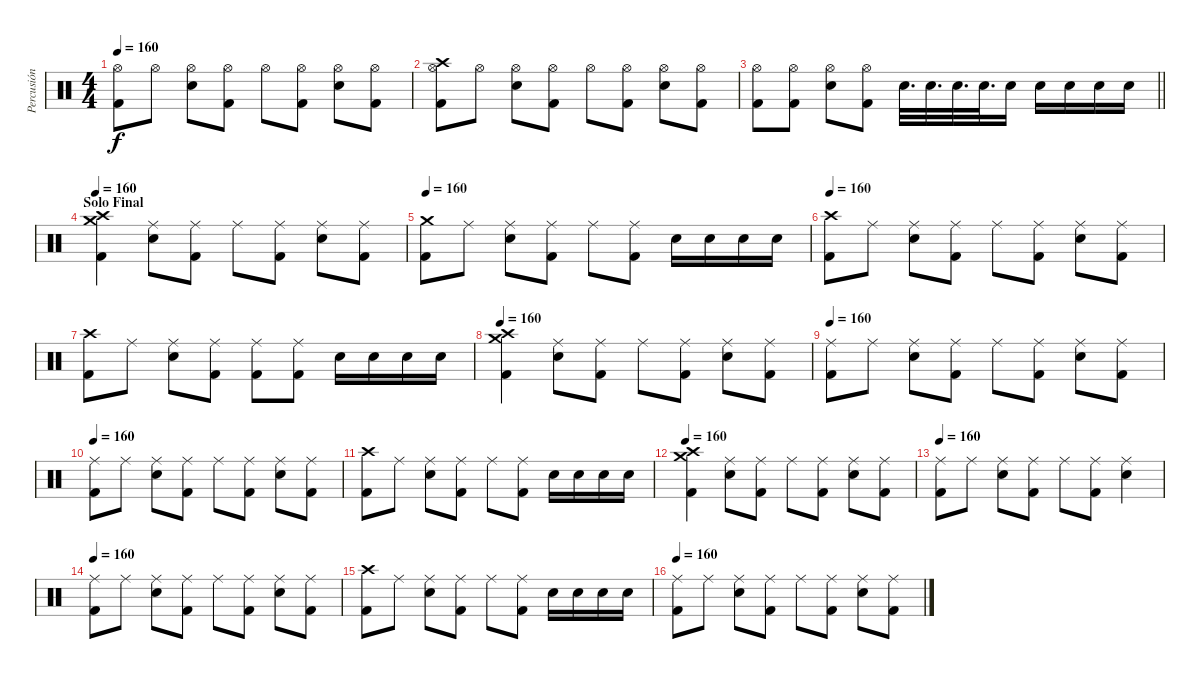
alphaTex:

\track ("Percusión" "Percusión") {instrument percussion}
\staff {score}
\articulation defaults
\ts (4 4)
\tempo 160
\clef neutral
\ks c
("Hi-Hat (open)" "Kick (hit) 2").8{dy f} "Hi-Hat (open)".8 ("Hi-Hat (open)" "Snare (hit) 2").8 ("Hi-Hat (open)" "Kick (hit) 2").8 "Hi-Hat (open)".8 ("Hi-Hat (open)" "Kick (hit) 2").8 ("Hi-Hat (open)" "Snare (hit) 2").8 ("Hi-Hat (open)" "Kick (hit) 2").8 |
("Crash high (hit)" "Hi-Hat (open)" "Kick (hit) 2").8 "Hi-Hat (open)".8 ("Hi-Hat (open)" "Snare (hit) 2").8 ("Hi-Hat (open)" "Kick (hit) 2").8 "Hi-Hat (open)".8 ("Hi-Hat (open)" "Kick (hit) 2").8 ("Hi-Hat (open)" "Snare (hit) 2").8 ("Hi-Hat (open)" "Kick (hit) 2").8 |
\barLineRight lightlight
("Hi-Hat (open)" "Kick (hit) 2").8 ("Hi-Hat (open)" "Kick (hit) 2").8 ("Hi-Hat (open)" "Snare (hit) 2").8 ("Hi-Hat (open)" "Kick (hit) 2").8 "Snare (hit) 2".32{d} "Snare (hit) 2".32{d} "Snare (hit) 2".32{d} "Snare (hit) 2".32{d} "Snare (hit) 2".16 "Snare (hit) 2".16 "Snare (hit) 2".16 "Snare (hit) 2".16 "Snare (hit) 2".16 |
\section ("" "Solo Final")
\tempo 160
("Crash high (hit)" "Crash medium (hit)" "Kick (hit) 2").4 ("Ride (middle)" "Snare (hit) 2").8 ("Ride (middle)" "Kick (hit) 2").8 "Ride (middle)".8 ("Ride (middle)" "Kick (hit) 2").8 ("Ride (middle)" "Snare (hit) 2").8 ("Ride (middle)" "Kick (hit) 2").8 |
\tempo 160
("Crash medium (hit)" "Kick (hit) 2").8 "Ride (middle)".8 ("Ride (middle)" "Snare (hit) 2").8 ("Ride (middle)" "Kick (hit) 2").8 "Ride (middle)".8 ("Ride (middle)" "Kick (hit) 2").8 "Snare (hit) 2".16 "Snare (hit) 2".16 "Snare (hit) 2".16 "Snare (hit) 2".16 |
\tempo 160
("Crash high (hit)" "Kick (hit) 2").8 "Ride (middle)".8 ("Ride (middle)" "Snare (hit) 2").8 ("Ride (middle)" "Kick (hit) 2").8 "Ride (middle)".8 ("Ride (middle)" "Kick (hit) 2").8 ("Ride (middle)" "Snare (hit) 2").8 ("Ride (middle)" "Kick (hit) 2").8 |
("Crash high (hit)" "Kick (hit) 2").8 "Ride (middle)".8 ("Ride (middle)" "Snare (hit) 2").8 ("Ride (middle)" "Kick (hit) 2").8 ("Ride (middle)" "Kick (hit) 2").8 ("Ride (middle)" "Kick (hit) 2").8 "Snare (hit) 2".16 "Snare (hit) 2".16 "Snare (hit) 2".16 "Snare (hit) 2".16 |
\tempo 160
("Crash high (hit)" "Crash medium (hit)" "Kick (hit) 2").4 ("Ride (middle)" "Snare (hit) 2").8 ("Ride (middle)" "Kick (hit) 2").8 "Ride (middle)".8 ("Ride (middle)" "Kick (hit) 2").8 ("Ride (middle)" "Snare (hit) 2").8 ("Ride (middle)" "Kick (hit) 2").8 |
\tempo 160
("Ride (middle)" "Kick (hit) 2").8 "Ride (middle)".8 ("Ride (middle)" "Snare (hit) 2").8 ("Ride (middle)" "Kick (hit) 2").8 "Ride (middle)".8 ("Ride (middle)" "Kick (hit) 2").8 ("Ride (middle)" "Snare (hit) 2").8 ("Ride (middle)" "Kick (hit) 2").8 |
\tempo 160
("Ride (middle)" "Kick (hit) 2").8 "Ride (middle)".8 ("Ride (middle)" "Snare (hit) 2").8 ("Ride (middle)" "Kick (hit) 2").8 "Ride (middle)".8 ("Ride (middle)" "Kick (hit) 2").8 ("Ride (middle)" "Snare (hit) 2").8 ("Ride (middle)" "Kick (hit) 2").8 |
("Crash high (hit)" "Kick (hit) 2").8 "Ride (middle)".8 ("Ride (middle)" "Snare (hit) 2").8 ("Ride (middle)" "Kick (hit) 2").8 "Ride (middle)".8 ("Ride (middle)" "Kick (hit) 2").8 "Snare (hit) 2".16 "Snare (hit) 2".16 "Snare (hit) 2".16 "Snare (hit) 2".16 |
\tempo 160
("Crash high (hit)" "Crash medium (hit)" "Kick (hit) 2").4 ("Ride (middle)" "Snare (hit) 2").8 ("Ride (middle)" "Kick (hit) 2").8 "Ride (middle)".8 ("Ride (middle)" "Kick (hit) 2").8 ("Ride (middle)" "Snare (hit) 2").8 ("Ride (middle)" "Kick (hit) 2").8 |
\tempo 160
("Ride (middle)" "Kick (hit) 2").8 "Ride (middle)".8 ("Ride (middle)" "Snare (hit) 2").8 ("Ride (middle)" "Kick (hit) 2").8 "Ride (middle)".8 ("Ride (middle)" "Kick (hit) 2").8 ("Ride (middle)" "Snare (hit) 2").4 |
\tempo 160
("Ride (middle)" "Kick (hit) 2").8 "Ride (middle)".8 ("Ride (middle)" "Snare (hit) 2").8 ("Ride (middle)" "Kick (hit) 2").8 "Ride (middle)".8 ("Ride (middle)" "Kick (hit) 2").8 ("Ride (middle)" "Snare (hit) 2").8 ("Ride (middle)" "Kick (hit) 2").8 |
("Crash high (hit)" "Kick (hit) 2").8 "Ride (middle)".8 ("Ride (middle)" "Snare (hit) 2").8 ("Ride (middle)" "Kick (hit) 2").8 "Ride (middle)".8 ("Ride (middle)" "Kick (hit) 2").8 "Snare (hit) 2".16 "Snare (hit) 2".16 "Snare (hit) 2".16 "Snare (hit) 2".16 |
\tempo 160
("Ride (middle)" "Kick (hit) 2").8 "Ride (middle)".8 ("Ride (middle)" "Snare (hit) 2").8 ("Ride (middle)" "Kick (hit) 2").8 "Ride (middle)".8 ("Ride (middle)" "Kick (hit) 2").8 ("Ride (middle)" "Snare (hit) 2").8 ("Ride (middle)" "Kick (hit) 2").8
